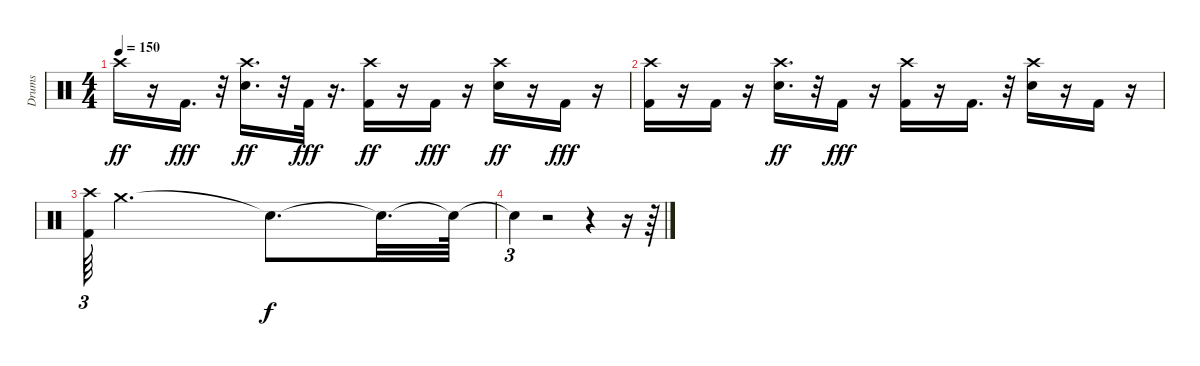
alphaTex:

\track ("Drums" "Drums") {instrument percussion}
\staff {score}
\articulation defaults
\ts (4 4)
\tempo 150
\clef neutral
\ks c "Crash high (hit)".16{dy ff}
r.16 "Kick (hit) 2".16{d dy fff} r.32 ("Snare (hit) 2" "Crash high (hit)").16{d dy ff} r.32 "Kick (hit) 2".32{dy fff} r.16{d} ("Kick (hit) 2" "Crash high (hit)").16{dy ff} r.16 "Kick (hit) 2".16{dy fff} r.16 ("Snare (hit) 2" "Crash high (hit)").16{dy ff} r.16 "Kick (hit) 2".16{dy fff} r.16 |
("Kick (hit) 2" "Crash high (hit)").16 r.16 "Kick (hit) 2".16 r.16 ("Snare (hit) 2" "Crash high (hit)").16{d dy ff} r.32 "Kick (hit) 2".16{dy fff} r.16 ("Kick (hit) 2" "Crash high (hit)").16 r.16 "Kick (hit) 2".16{d} r.32 ("Snare (hit) 2" "Crash high (hit)").16 r.16 "Kick (hit) 2".16 r.16 |
("Kick (hit) 2" "Crash high (hit)").64{tu (3 2)} "Crash medium (hit)".2{d} "Snare (hit)"{t}.8{d dy f} "Snare (hit)"{t}.32{d} "Snare (hit)"{t}.64 |
"Snare (hit)"{t}.4{tu (3 2)} r.2 r.4 r.16 r.64
